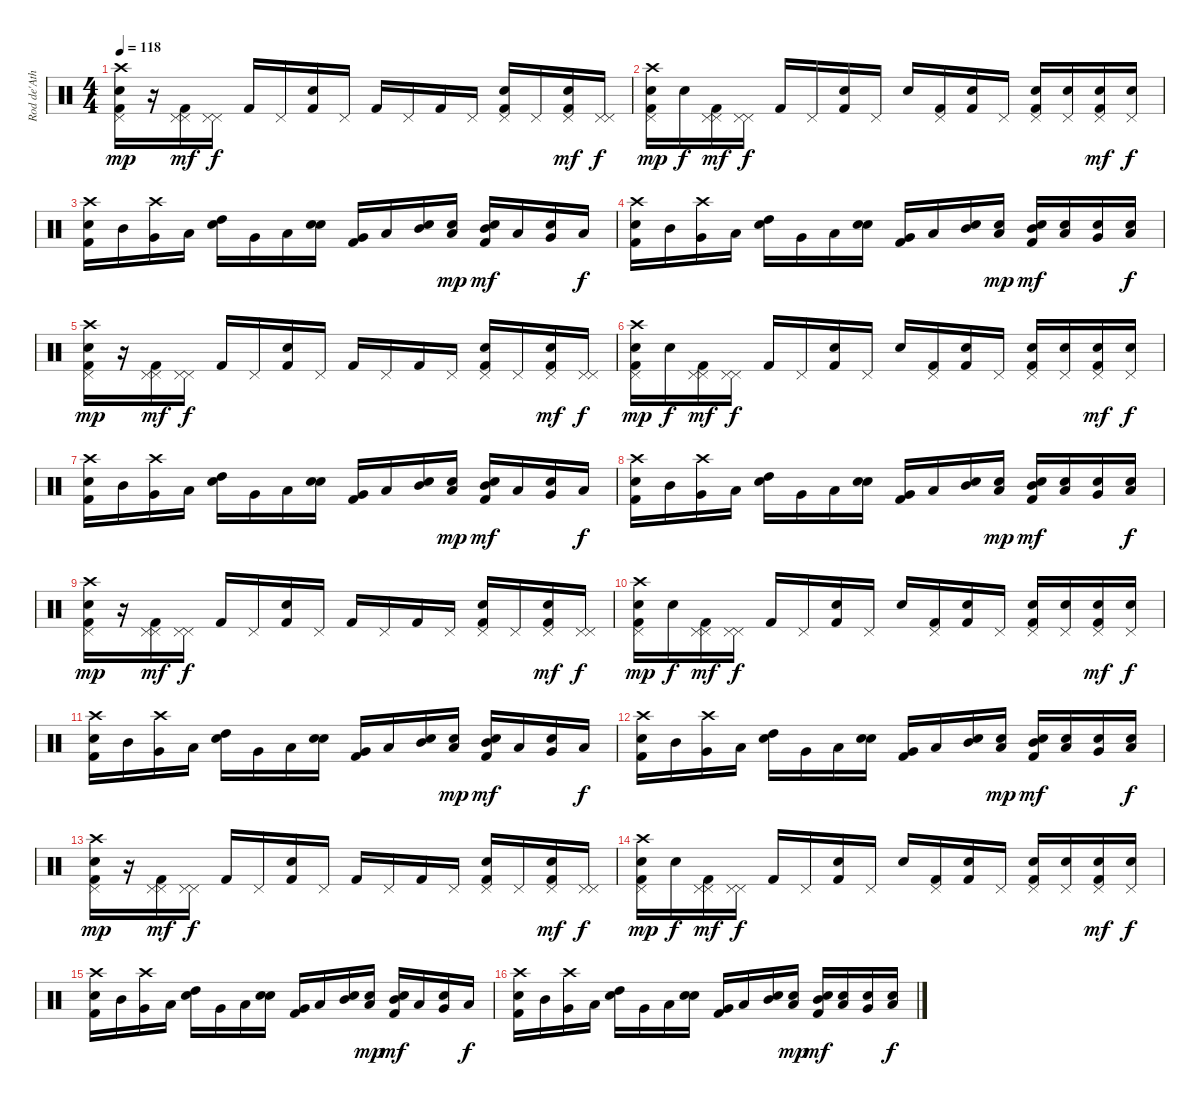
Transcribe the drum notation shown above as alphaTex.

\track ("Rod de'Ath" "Rod de'Ath") {instrument percussion}
\staff {score}
\articulation defaults
\ts (4 4)
\tempo 118
\clef neutral
\ks c
("Crash high (hit)" "Snare (hit) 2" "Pedal Hi-Hat (hit)" "Kick (hit) 2").16{dy mp} r.16 ("Pedal Hi-Hat (hit)" "Pedal Hi-Hat (hit)" "Kick (hit) 2").16{dy mf} ("Pedal Hi-Hat (hit)" "Pedal Hi-Hat (hit)").16{dy f} "Kick (hit) 2".16 "Pedal Hi-Hat (hit)".16 ("Snare (hit) 2" "Kick (hit) 2").16 "Pedal Hi-Hat (hit)".16 "Kick (hit) 2".16 "Pedal Hi-Hat (hit)".16 "Kick (hit) 2".16 "Pedal Hi-Hat (hit)".16 ("Snare (hit) 2" "Pedal Hi-Hat (hit)" "Kick (hit) 2").16 "Pedal Hi-Hat (hit)".16 ("Snare (hit) 2" "Pedal Hi-Hat (hit)" "Kick (hit) 2").16{dy mf} ("Pedal Hi-Hat (hit)" "Pedal Hi-Hat (hit)").16{dy f} |
("Crash high (hit)" "Snare (hit) 2" "Pedal Hi-Hat (hit)" "Kick (hit) 2").16{dy mp} "Electric Snare (hit)".16{dy f} ("Pedal Hi-Hat (hit)" "Pedal Hi-Hat (hit)" "Kick (hit) 2").16{dy mf} ("Pedal Hi-Hat (hit)" "Pedal Hi-Hat (hit)").16{dy f} "Kick (hit) 2".16 "Pedal Hi-Hat (hit)".16 ("Snare (hit) 2" "Kick (hit) 2").16 "Pedal Hi-Hat (hit)".16 "Snare (hit) 2".16 ("Pedal Hi-Hat (hit)" "Kick (hit) 2").16 ("Snare (hit) 2" "Kick (hit) 2").16 "Pedal Hi-Hat (hit)".16 ("Snare (hit) 2" "Pedal Hi-Hat (hit)" "Kick (hit) 2").16 ("Snare (hit) 2" "Pedal Hi-Hat (hit)").16 ("Snare (hit) 2" "Pedal Hi-Hat (hit)" "Kick (hit) 2").16{dy mf} ("Snare (hit) 2" "Pedal Hi-Hat (hit)").16{dy f} |
("Crash high (hit)" "Snare (hit) 2" "Kick (hit) 2").16 "Mid Tom (hit)".16 ("Crash high (hit)" "Very Low Tom (hit)").16 "Low Tom (hit)".16 ("Snare (hit) 2" "High Tom (hit)").16 "Very Low Tom (hit)".16 "Low Tom (hit)".16 ("Electric Snare (hit)" "Snare (hit) 2").16 ("Very Low Tom (hit)" "Kick (hit) 2").16 "Low Tom (hit)".16 ("Electric Snare (hit)" "Mid Tom (hit)").16 ("Electric Snare (hit)" "Low Tom (hit)").16{dy mp} ("Snare (hit) 2" "Mid Tom (hit)" "Kick (hit) 2").16{dy mf} "Low Tom (hit)".16 ("Snare (hit) 2" "Very Low Tom (hit)").16 "Low Tom (hit)".16{dy f} |
("Crash high (hit)" "Snare (hit) 2" "Kick (hit) 2").16 "Mid Tom (hit)".16 ("Crash high (hit)" "Very Low Tom (hit)").16 "Low Tom (hit)".16 ("Snare (hit) 2" "High Tom (hit)").16 "Very Low Tom (hit)".16 "Low Tom (hit)".16 ("Electric Snare (hit)" "Snare (hit) 2").16 ("Very Low Tom (hit)" "Kick (hit) 2").16 "Low Tom (hit)".16 ("Electric Snare (hit)" "Mid Tom (hit)").16 ("Electric Snare (hit)" "Low Tom (hit)").16{dy mp} ("Electric Snare (hit)" "Mid Tom (hit)" "Kick (hit) 2").16{dy mf} ("Electric Snare (hit)" "Low Tom (hit)").16 ("Electric Snare (hit)" "Very Low Tom (hit)").16 ("Electric Snare (hit)" "Low Tom (hit)").16{dy f} |
("Crash high (hit)" "Snare (hit) 2" "Pedal Hi-Hat (hit)" "Kick (hit) 2").16{dy mp} r.16 ("Pedal Hi-Hat (hit)" "Pedal Hi-Hat (hit)" "Kick (hit) 2").16{dy mf} ("Pedal Hi-Hat (hit)" "Pedal Hi-Hat (hit)").16{dy f} "Kick (hit) 2".16 "Pedal Hi-Hat (hit)".16 ("Snare (hit) 2" "Kick (hit) 2").16 "Pedal Hi-Hat (hit)".16 "Kick (hit) 2".16 "Pedal Hi-Hat (hit)".16 "Kick (hit) 2".16 "Pedal Hi-Hat (hit)".16 ("Snare (hit) 2" "Pedal Hi-Hat (hit)" "Kick (hit) 2").16 "Pedal Hi-Hat (hit)".16 ("Snare (hit) 2" "Pedal Hi-Hat (hit)" "Kick (hit) 2").16{dy mf} ("Pedal Hi-Hat (hit)" "Pedal Hi-Hat (hit)").16{dy f} |
("Crash high (hit)" "Snare (hit) 2" "Pedal Hi-Hat (hit)" "Kick (hit) 2").16{dy mp} "Electric Snare (hit)".16{dy f} ("Pedal Hi-Hat (hit)" "Pedal Hi-Hat (hit)" "Kick (hit) 2").16{dy mf} ("Pedal Hi-Hat (hit)" "Pedal Hi-Hat (hit)").16{dy f} "Kick (hit) 2".16 "Pedal Hi-Hat (hit)".16 ("Snare (hit) 2" "Kick (hit) 2").16 "Pedal Hi-Hat (hit)".16 "Snare (hit) 2".16 ("Pedal Hi-Hat (hit)" "Kick (hit) 2").16 ("Snare (hit) 2" "Kick (hit) 2").16 "Pedal Hi-Hat (hit)".16 ("Snare (hit) 2" "Pedal Hi-Hat (hit)" "Kick (hit) 2").16 ("Snare (hit) 2" "Pedal Hi-Hat (hit)").16 ("Snare (hit) 2" "Pedal Hi-Hat (hit)" "Kick (hit) 2").16{dy mf} ("Snare (hit) 2" "Pedal Hi-Hat (hit)").16{dy f} |
("Crash high (hit)" "Snare (hit) 2" "Kick (hit) 2").16 "Mid Tom (hit)".16 ("Crash high (hit)" "Very Low Tom (hit)").16 "Low Tom (hit)".16 ("Snare (hit) 2" "High Tom (hit)").16 "Very Low Tom (hit)".16 "Low Tom (hit)".16 ("Electric Snare (hit)" "Snare (hit) 2").16 ("Very Low Tom (hit)" "Kick (hit) 2").16 "Low Tom (hit)".16 ("Electric Snare (hit)" "Mid Tom (hit)").16 ("Electric Snare (hit)" "Low Tom (hit)").16{dy mp} ("Snare (hit) 2" "Mid Tom (hit)" "Kick (hit) 2").16{dy mf} "Low Tom (hit)".16 ("Snare (hit) 2" "Very Low Tom (hit)").16 "Low Tom (hit)".16{dy f} |
("Crash high (hit)" "Snare (hit) 2" "Kick (hit) 2").16 "Mid Tom (hit)".16 ("Crash high (hit)" "Very Low Tom (hit)").16 "Low Tom (hit)".16 ("Snare (hit) 2" "High Tom (hit)").16 "Very Low Tom (hit)".16 "Low Tom (hit)".16 ("Electric Snare (hit)" "Snare (hit) 2").16 ("Very Low Tom (hit)" "Kick (hit) 2").16 "Low Tom (hit)".16 ("Electric Snare (hit)" "Mid Tom (hit)").16 ("Electric Snare (hit)" "Low Tom (hit)").16{dy mp} ("Electric Snare (hit)" "Mid Tom (hit)" "Kick (hit) 2").16{dy mf} ("Electric Snare (hit)" "Low Tom (hit)").16 ("Electric Snare (hit)" "Very Low Tom (hit)").16 ("Electric Snare (hit)" "Low Tom (hit)").16{dy f} |
("Crash high (hit)" "Snare (hit) 2" "Pedal Hi-Hat (hit)" "Kick (hit) 2").16{dy mp} r.16 ("Pedal Hi-Hat (hit)" "Pedal Hi-Hat (hit)" "Kick (hit) 2").16{dy mf} ("Pedal Hi-Hat (hit)" "Pedal Hi-Hat (hit)").16{dy f} "Kick (hit) 2".16 "Pedal Hi-Hat (hit)".16 ("Snare (hit) 2" "Kick (hit) 2").16 "Pedal Hi-Hat (hit)".16 "Kick (hit) 2".16 "Pedal Hi-Hat (hit)".16 "Kick (hit) 2".16 "Pedal Hi-Hat (hit)".16 ("Snare (hit) 2" "Pedal Hi-Hat (hit)" "Kick (hit) 2").16 "Pedal Hi-Hat (hit)".16 ("Snare (hit) 2" "Pedal Hi-Hat (hit)" "Kick (hit) 2").16{dy mf} ("Pedal Hi-Hat (hit)" "Pedal Hi-Hat (hit)").16{dy f} |
("Crash high (hit)" "Snare (hit) 2" "Pedal Hi-Hat (hit)" "Kick (hit) 2").16{dy mp} "Electric Snare (hit)".16{dy f} ("Pedal Hi-Hat (hit)" "Pedal Hi-Hat (hit)" "Kick (hit) 2").16{dy mf} ("Pedal Hi-Hat (hit)" "Pedal Hi-Hat (hit)").16{dy f} "Kick (hit) 2".16 "Pedal Hi-Hat (hit)".16 ("Snare (hit) 2" "Kick (hit) 2").16 "Pedal Hi-Hat (hit)".16 "Snare (hit) 2".16 ("Pedal Hi-Hat (hit)" "Kick (hit) 2").16 ("Snare (hit) 2" "Kick (hit) 2").16 "Pedal Hi-Hat (hit)".16 ("Snare (hit) 2" "Pedal Hi-Hat (hit)" "Kick (hit) 2").16 ("Snare (hit) 2" "Pedal Hi-Hat (hit)").16 ("Snare (hit) 2" "Pedal Hi-Hat (hit)" "Kick (hit) 2").16{dy mf} ("Snare (hit) 2" "Pedal Hi-Hat (hit)").16{dy f} |
("Crash high (hit)" "Snare (hit) 2" "Kick (hit) 2").16 "Mid Tom (hit)".16 ("Crash high (hit)" "Very Low Tom (hit)").16 "Low Tom (hit)".16 ("Snare (hit) 2" "High Tom (hit)").16 "Very Low Tom (hit)".16 "Low Tom (hit)".16 ("Electric Snare (hit)" "Snare (hit) 2").16 ("Very Low Tom (hit)" "Kick (hit) 2").16 "Low Tom (hit)".16 ("Electric Snare (hit)" "Mid Tom (hit)").16 ("Electric Snare (hit)" "Low Tom (hit)").16{dy mp} ("Snare (hit) 2" "Mid Tom (hit)" "Kick (hit) 2").16{dy mf} "Low Tom (hit)".16 ("Snare (hit) 2" "Very Low Tom (hit)").16 "Low Tom (hit)".16{dy f} |
("Crash high (hit)" "Snare (hit) 2" "Kick (hit) 2").16 "Mid Tom (hit)".16 ("Crash high (hit)" "Very Low Tom (hit)").16 "Low Tom (hit)".16 ("Snare (hit) 2" "High Tom (hit)").16 "Very Low Tom (hit)".16 "Low Tom (hit)".16 ("Electric Snare (hit)" "Snare (hit) 2").16 ("Very Low Tom (hit)" "Kick (hit) 2").16 "Low Tom (hit)".16 ("Electric Snare (hit)" "Mid Tom (hit)").16 ("Electric Snare (hit)" "Low Tom (hit)").16{dy mp} ("Electric Snare (hit)" "Mid Tom (hit)" "Kick (hit) 2").16{dy mf} ("Electric Snare (hit)" "Low Tom (hit)").16 ("Electric Snare (hit)" "Very Low Tom (hit)").16 ("Electric Snare (hit)" "Low Tom (hit)").16{dy f} |
("Crash high (hit)" "Snare (hit) 2" "Pedal Hi-Hat (hit)" "Kick (hit) 2").16{dy mp} r.16 ("Pedal Hi-Hat (hit)" "Pedal Hi-Hat (hit)" "Kick (hit) 2").16{dy mf} ("Pedal Hi-Hat (hit)" "Pedal Hi-Hat (hit)").16{dy f} "Kick (hit) 2".16 "Pedal Hi-Hat (hit)".16 ("Snare (hit) 2" "Kick (hit) 2").16 "Pedal Hi-Hat (hit)".16 "Kick (hit) 2".16 "Pedal Hi-Hat (hit)".16 "Kick (hit) 2".16 "Pedal Hi-Hat (hit)".16 ("Snare (hit) 2" "Pedal Hi-Hat (hit)" "Kick (hit) 2").16 "Pedal Hi-Hat (hit)".16 ("Snare (hit) 2" "Pedal Hi-Hat (hit)" "Kick (hit) 2").16{dy mf} ("Pedal Hi-Hat (hit)" "Pedal Hi-Hat (hit)").16{dy f} |
("Crash high (hit)" "Snare (hit) 2" "Pedal Hi-Hat (hit)" "Kick (hit) 2").16{dy mp} "Electric Snare (hit)".16{dy f} ("Pedal Hi-Hat (hit)" "Pedal Hi-Hat (hit)" "Kick (hit) 2").16{dy mf} ("Pedal Hi-Hat (hit)" "Pedal Hi-Hat (hit)").16{dy f} "Kick (hit) 2".16 "Pedal Hi-Hat (hit)".16 ("Snare (hit) 2" "Kick (hit) 2").16 "Pedal Hi-Hat (hit)".16 "Snare (hit) 2".16 ("Pedal Hi-Hat (hit)" "Kick (hit) 2").16 ("Snare (hit) 2" "Kick (hit) 2").16 "Pedal Hi-Hat (hit)".16 ("Snare (hit) 2" "Pedal Hi-Hat (hit)" "Kick (hit) 2").16 ("Snare (hit) 2" "Pedal Hi-Hat (hit)").16 ("Snare (hit) 2" "Pedal Hi-Hat (hit)" "Kick (hit) 2").16{dy mf} ("Snare (hit) 2" "Pedal Hi-Hat (hit)").16{dy f} |
("Crash high (hit)" "Snare (hit) 2" "Kick (hit) 2").16 "Mid Tom (hit)".16 ("Crash high (hit)" "Very Low Tom (hit)").16 "Low Tom (hit)".16 ("Snare (hit) 2" "High Tom (hit)").16 "Very Low Tom (hit)".16 "Low Tom (hit)".16 ("Electric Snare (hit)" "Snare (hit) 2").16 ("Very Low Tom (hit)" "Kick (hit) 2").16 "Low Tom (hit)".16 ("Electric Snare (hit)" "Mid Tom (hit)").16 ("Electric Snare (hit)" "Low Tom (hit)").16{dy mp} ("Snare (hit) 2" "Mid Tom (hit)" "Kick (hit) 2").16{dy mf} "Low Tom (hit)".16 ("Snare (hit) 2" "Very Low Tom (hit)").16 "Low Tom (hit)".16{dy f} |
("Crash high (hit)" "Snare (hit) 2" "Kick (hit) 2").16 "Mid Tom (hit)".16 ("Crash high (hit)" "Very Low Tom (hit)").16 "Low Tom (hit)".16 ("Snare (hit) 2" "High Tom (hit)").16 "Very Low Tom (hit)".16 "Low Tom (hit)".16 ("Electric Snare (hit)" "Snare (hit) 2").16 ("Very Low Tom (hit)" "Kick (hit) 2").16 "Low Tom (hit)".16 ("Electric Snare (hit)" "Mid Tom (hit)").16 ("Electric Snare (hit)" "Low Tom (hit)").16{dy mp} ("Electric Snare (hit)" "Mid Tom (hit)" "Kick (hit) 2").16{dy mf} ("Electric Snare (hit)" "Low Tom (hit)").16 ("Electric Snare (hit)" "Very Low Tom (hit)").16 ("Electric Snare (hit)" "Low Tom (hit)").16{dy f}
